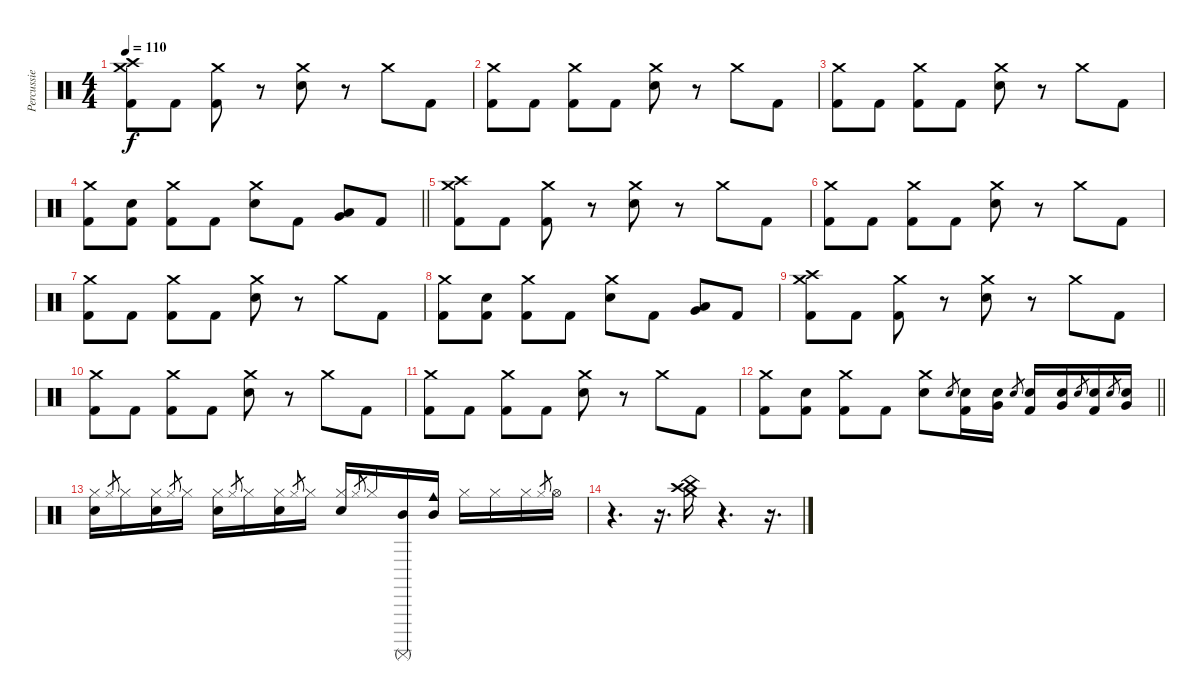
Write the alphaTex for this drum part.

\track ("Percussie" "Percussie") {instrument percussion}
\staff {score}
\articulation defaults
\ts (4 4)
\tempo 110
\clef neutral
\ks c
("Crash high (hit)" "Crash medium (hit)" "Kick (hit) 2").8{dy f} "Kick (hit) 2".8 ("Crash medium (hit)" "Kick (hit) 2").8 r.8 ("Crash medium (hit)" "Electric Snare (hit)").8 r.8 "Crash medium (hit)".8 "Kick (hit) 2".8 |
("Crash medium (hit)" "Kick (hit) 2").8 "Kick (hit) 2".8 ("Crash medium (hit)" "Kick (hit) 2").8 "Kick (hit) 2".8 ("Crash medium (hit)" "Electric Snare (hit)").8 r.8 "Crash medium (hit)".8 "Kick (hit) 2".8 |
("Crash medium (hit)" "Kick (hit) 2").8 "Kick (hit) 2".8 ("Crash medium (hit)" "Kick (hit) 2").8 "Kick (hit) 2".8 ("Crash medium (hit)" "Electric Snare (hit)").8 r.8 "Crash medium (hit)".8 "Kick (hit) 2".8 |
\barLineRight lightlight
("Crash medium (hit)" "Kick (hit) 2").8 ("Electric Snare (hit)" "Kick (hit) 2").8 ("Crash medium (hit)" "Kick (hit) 2").8 "Kick (hit) 2".8 ("Crash medium (hit)" "Electric Snare (hit)").8 "Kick (hit) 2".8 ("Low Tom (hit)" "Very Low Tom (hit)").8 "Kick (hit) 2".8 |
("Crash high (hit)" "Crash medium (hit)" "Kick (hit) 2").8 "Kick (hit) 2".8 ("Crash medium (hit)" "Kick (hit) 2").8 r.8 ("Crash medium (hit)" "Electric Snare (hit)").8 r.8 "Crash medium (hit)".8 "Kick (hit) 2".8 |
("Crash medium (hit)" "Kick (hit) 2").8 "Kick (hit) 2".8 ("Crash medium (hit)" "Kick (hit) 2").8 "Kick (hit) 2".8 ("Crash medium (hit)" "Electric Snare (hit)").8 r.8 "Crash medium (hit)".8 "Kick (hit) 2".8 |
("Crash medium (hit)" "Kick (hit) 2").8 "Kick (hit) 2".8 ("Crash medium (hit)" "Kick (hit) 2").8 "Kick (hit) 2".8 ("Crash medium (hit)" "Electric Snare (hit)").8 r.8 "Crash medium (hit)".8 "Kick (hit) 2".8 |
("Crash medium (hit)" "Kick (hit) 2").8 ("Electric Snare (hit)" "Kick (hit) 2").8 ("Crash medium (hit)" "Kick (hit) 2").8 "Kick (hit) 2".8 ("Crash medium (hit)" "Electric Snare (hit)").8 "Kick (hit) 2".8 ("Low Tom (hit)" "Very Low Tom (hit)").8 "Kick (hit) 2".8 |
("Crash high (hit)" "Crash medium (hit)" "Kick (hit) 2").8 "Kick (hit) 2".8 ("Crash medium (hit)" "Kick (hit) 2").8 r.8 ("Crash medium (hit)" "Electric Snare (hit)").8 r.8 "Crash medium (hit)".8 "Kick (hit) 2".8 |
("Crash medium (hit)" "Kick (hit) 2").8 "Kick (hit) 2".8 ("Crash medium (hit)" "Kick (hit) 2").8 "Kick (hit) 2".8 ("Crash medium (hit)" "Electric Snare (hit)").8 r.8 "Crash medium (hit)".8 "Kick (hit) 2".8 |
("Crash medium (hit)" "Kick (hit) 2").8 "Kick (hit) 2".8 ("Crash medium (hit)" "Kick (hit) 2").8 "Kick (hit) 2".8 ("Crash medium (hit)" "Electric Snare (hit)").8 r.8 "Crash medium (hit)".8 "Kick (hit) 2".8 |
\barLineRight lightlight
("Crash medium (hit)" "Kick (hit) 2").8 ("Electric Snare (hit)" "Kick (hit) 2").8 ("Crash medium (hit)" "Kick (hit) 2").8 "Kick (hit) 2".8 ("Crash medium (hit)" "Electric Snare (hit)").8 "Electric Snare (hit)".8{gr} ("Electric Snare (hit)" "Kick (hit) 2").16 ("Electric Snare (hit)" "Very Low Tom (hit)").16 "Electric Snare (hit)".8{gr} ("Electric Snare (hit)" "Kick (hit) 2").16 ("Electric Snare (hit)" "Very Low Tom (hit)").16 "Electric Snare (hit)".8{gr} ("Electric Snare (hit)" "Kick (hit) 2").16 "Electric Snare (hit)".8{gr} ("Electric Snare (hit)" "Very Low Tom (hit)").16 |
("Electric Snare (hit)" "Hi-Hat (closed)").16 "Hi-Hat (closed)".8{gr} "Hi-Hat (closed)".16 ("Electric Snare (hit)" "Hi-Hat (closed)").16 "Hi-Hat (closed)".8{gr} "Hi-Hat (closed)".16 ("Electric Snare (hit)" "Hi-Hat (closed)").16 "Hi-Hat (closed)".8{gr} "Hi-Hat (closed)".16 ("Electric Snare (hit)" "Hi-Hat (closed)").16 "Hi-Hat (closed)".8{gr} "Hi-Hat (closed)".16 ("Electric Snare (hit)" "Hi-Hat (closed)").16 "Hi-Hat (closed)".8{gr} "Hi-Hat (closed)".16 ("Mid Tom (hit)" "Surdo (mute)").16 ("Mid Tom (hit)" "Cowbell medium (hit)").16 "Hi-Hat (closed)".16 "Hi-Hat (closed)".16 "Hi-Hat (closed)".16 "Hi-Hat (closed)"{sl x}.8{gr} "Hi-Hat (open)".16 |
r.4{d} r.16{d} ("Crash medium (hit)" "Crash high (hit)" "China (hit)").16 r.4{d} r.16{d}
